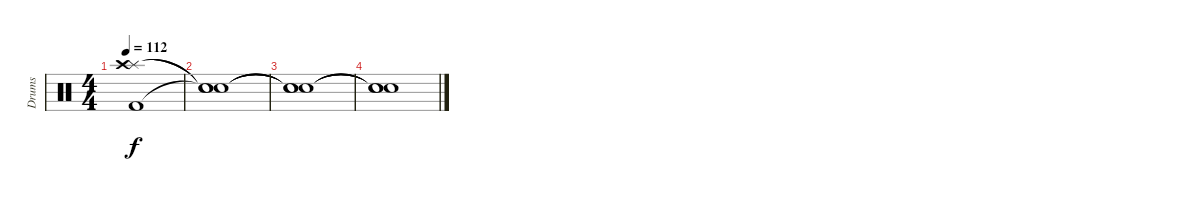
\track ("Drums" "Drums") {instrument percussion}
\staff {score}
\articulation defaults
\ts (4 4)
\tempo 112
\clef neutral
\ks c
("Kick (hit) 2" "Splash (hit)" "Crash high (hit)").1{dy f} |
("Snare (hit)"{t} "Snare (hit)"{t} "Snare (hit)"{t}).1 |
("Snare (hit)"{t} "Snare (hit)"{t} "Snare (hit)"{t}).1 |
("Snare (hit)"{t} "Snare (hit)"{t} "Snare (hit)"{t}).1
